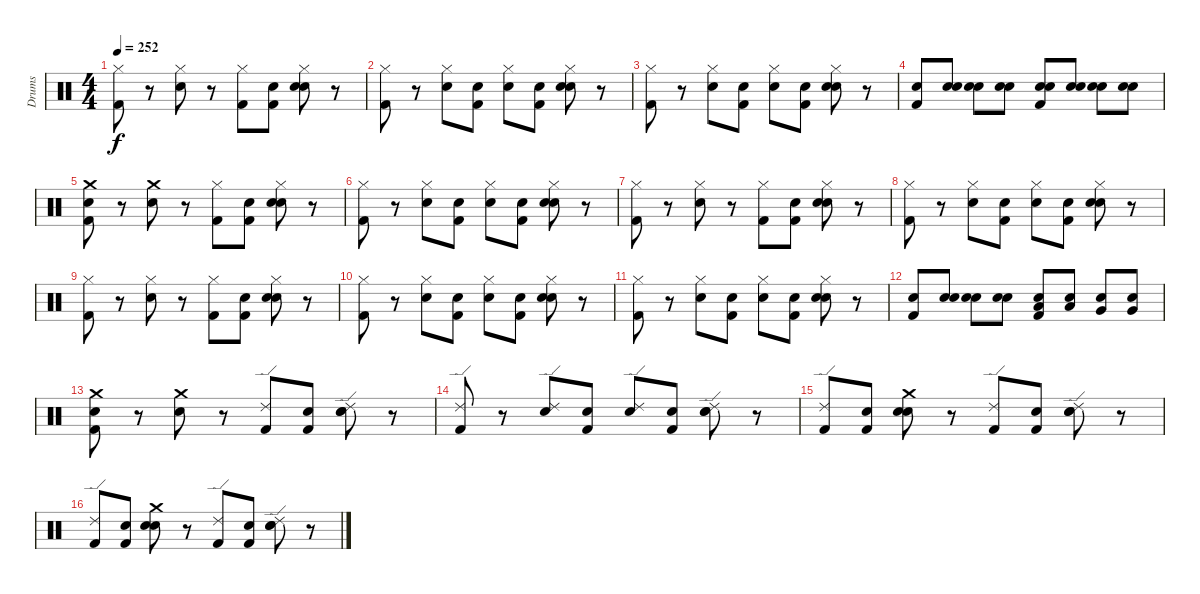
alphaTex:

\track ("Drums" "Drums") {instrument percussion}
\staff {score}
\articulation defaults
\ts (4 4)
\tempo 252
\clef neutral
\ks c
("Hi-Hat (closed)" "Kick (hit) 2").8{dy f} r.8 ("Hi-Hat (closed)" "Electric Snare (hit)").8 r.8 ("Hi-Hat (closed)" "Kick (hit) 2").8 ("Snare (hit)" "Kick (hit) 2").8 ("Snare (hit)" "Hi-Hat (closed)" "Electric Snare (hit)").8 r.8 |
("Hi-Hat (closed)" "Kick (hit) 2").8 r.8 ("Hi-Hat (closed)" "Electric Snare (hit)").8 ("Snare (hit)" "Kick (hit) 2").8 ("Snare (hit)" "Hi-Hat (closed)").8 ("Snare (hit)" "Kick (hit) 2").8 ("Snare (hit)" "Hi-Hat (closed)" "Electric Snare (hit)").8 r.8 |
("Hi-Hat (closed)" "Kick (hit) 2").8 r.8 ("Hi-Hat (closed)" "Electric Snare (hit)").8 ("Snare (hit)" "Kick (hit) 2").8 ("Snare (hit)" "Hi-Hat (closed)").8 ("Snare (hit)" "Kick (hit) 2").8 ("Snare (hit)" "Hi-Hat (closed)" "Electric Snare (hit)").8 r.8 |
("Electric Snare (hit)" "Kick (hit) 2").8 ("Snare (hit)" "Electric Snare (hit)").8 ("Snare (hit)" "Electric Snare (hit)").8 ("Snare (hit)" "Electric Snare (hit)").8 ("Snare (hit)" "Electric Snare (hit)" "Kick (hit) 2").8 ("Snare (hit)" "Electric Snare (hit)").8 ("Snare (hit)" "Electric Snare (hit)").8 ("Snare (hit)" "Electric Snare (hit)").8 |
("Snare (hit)" "Crash medium (hit)" "Kick (hit) 2").8 r.8 ("Crash medium (hit)" "Electric Snare (hit)").8 r.8 ("Hi-Hat (closed)" "Kick (hit) 2").8 ("Snare (hit)" "Kick (hit) 2").8 ("Snare (hit)" "Hi-Hat (closed)" "Electric Snare (hit)").8 r.8 |
("Hi-Hat (closed)" "Kick (hit) 2").8 r.8 ("Hi-Hat (closed)" "Electric Snare (hit)").8 ("Snare (hit)" "Kick (hit) 2").8 ("Snare (hit)" "Hi-Hat (closed)").8 ("Snare (hit)" "Kick (hit) 2").8 ("Snare (hit)" "Hi-Hat (closed)" "Electric Snare (hit)").8 r.8 |
("Hi-Hat (closed)" "Kick (hit) 2").8 r.8 ("Hi-Hat (closed)" "Electric Snare (hit)").8 r.8 ("Hi-Hat (closed)" "Kick (hit) 2").8 ("Snare (hit)" "Kick (hit) 2").8 ("Snare (hit)" "Hi-Hat (closed)" "Electric Snare (hit)").8 r.8 |
("Hi-Hat (closed)" "Kick (hit) 2").8 r.8 ("Hi-Hat (closed)" "Electric Snare (hit)").8 ("Snare (hit)" "Kick (hit) 2").8 ("Snare (hit)" "Hi-Hat (closed)").8 ("Snare (hit)" "Kick (hit) 2").8 ("Snare (hit)" "Hi-Hat (closed)" "Electric Snare (hit)").8 r.8 |
("Hi-Hat (closed)" "Kick (hit) 2").8 r.8 ("Hi-Hat (closed)" "Electric Snare (hit)").8 r.8 ("Hi-Hat (closed)" "Kick (hit) 2").8 ("Snare (hit)" "Kick (hit) 2").8 ("Snare (hit)" "Hi-Hat (closed)" "Electric Snare (hit)").8 r.8 |
("Hi-Hat (closed)" "Kick (hit) 2").8 r.8 ("Hi-Hat (closed)" "Electric Snare (hit)").8 ("Snare (hit)" "Kick (hit) 2").8 ("Snare (hit)" "Hi-Hat (closed)").8 ("Snare (hit)" "Kick (hit) 2").8 ("Snare (hit)" "Hi-Hat (closed)" "Electric Snare (hit)").8 r.8 |
("Hi-Hat (closed)" "Kick (hit) 2").8 r.8 ("Hi-Hat (closed)" "Electric Snare (hit)").8 ("Snare (hit)" "Kick (hit) 2").8 ("Snare (hit)" "Hi-Hat (closed)").8 ("Snare (hit)" "Kick (hit) 2").8 ("Snare (hit)" "Hi-Hat (closed)" "Electric Snare (hit)").8 r.8 |
("Electric Snare (hit)" "Kick (hit) 2").8 ("Snare (hit)" "Electric Snare (hit)").8 ("Snare (hit)" "Electric Snare (hit)").8 ("Snare (hit)" "Electric Snare (hit)").8 ("Snare (hit)" "Low Tom (hit)" "Kick (hit) 2").8 ("Snare (hit)" "Low Tom (hit)").8 ("Snare (hit)" "Very Low Tom (hit)").8 ("Snare (hit)" "Very Low Tom (hit)").8 |
("Snare (hit)" "Crash medium (hit)" "Kick (hit) 2").8 r.8 ("Crash medium (hit)" "Electric Snare (hit)").8 r.8 ("Ride (edge) 2" "Kick (hit) 2").8 ("Snare (hit)" "Kick (hit) 2").8 ("Snare (hit)" "Ride (edge) 2" "Electric Snare (hit)").8 r.8 |
("Ride (edge) 2" "Kick (hit) 2").8 r.8 ("Ride (edge) 2" "Electric Snare (hit)").8 ("Snare (hit)" "Kick (hit) 2").8 ("Snare (hit)" "Ride (edge) 2").8 ("Snare (hit)" "Kick (hit) 2").8 ("Snare (hit)" "Ride (edge) 2" "Electric Snare (hit)").8 r.8 |
("Ride (edge) 2" "Kick (hit) 2").8 ("Snare (hit)" "Kick (hit) 2").8 ("Snare (hit)" "Crash medium (hit)" "Electric Snare (hit)").8 r.8 ("Ride (edge) 2" "Kick (hit) 2").8 ("Snare (hit)" "Kick (hit) 2").8 ("Snare (hit)" "Ride (edge) 2" "Electric Snare (hit)").8 r.8 |
("Ride (edge) 2" "Kick (hit) 2").8 ("Snare (hit)" "Kick (hit) 2").8 ("Snare (hit)" "Crash medium (hit)" "Electric Snare (hit)").8 r.8 ("Ride (edge) 2" "Kick (hit) 2").8 ("Snare (hit)" "Kick (hit) 2").8 ("Snare (hit)" "Ride (edge) 2" "Electric Snare (hit)").8 r.8
